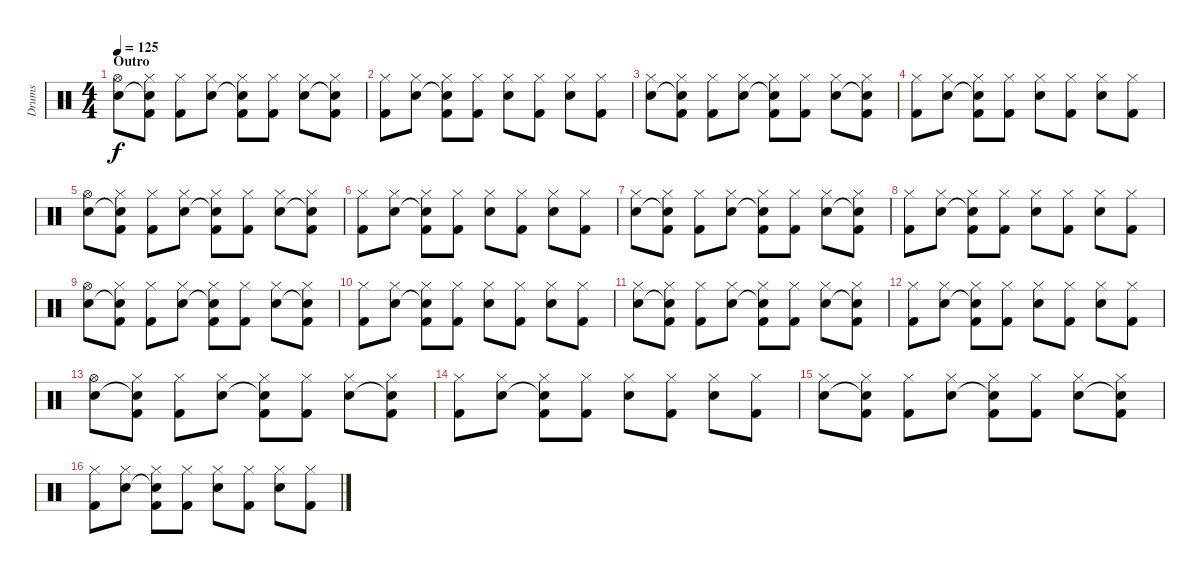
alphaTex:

\track ("Drums" "Drums") {instrument percussion}
\staff {score}
\articulation defaults
\ts (4 4)
\section ("" "Outro")
\tempo 125
\clef neutral
\ks c
("Hi-Hat (open)" "Snare (hit) 2").8{dy f} ("Hi-Hat (closed)" "Snare (hit) 2"{t} "Kick (hit) 2").8 ("Hi-Hat (closed)" "Kick (hit) 2").8 ("Hi-Hat (closed)" "Snare (hit) 2").8 ("Hi-Hat (closed)" "Snare (hit) 2"{t} "Kick (hit) 2").8 ("Hi-Hat (closed)" "Kick (hit) 2").8 ("Hi-Hat (closed)" "Snare (hit) 2").8 ("Hi-Hat (closed)" "Snare (hit) 2"{t} "Kick (hit) 2").8 |
("Hi-Hat (closed)" "Kick (hit) 2").8 ("Hi-Hat (closed)" "Snare (hit) 2").8 ("Hi-Hat (closed)" "Snare (hit) 2"{t} "Kick (hit) 2").8 ("Hi-Hat (closed)" "Kick (hit) 2").8 ("Hi-Hat (closed)" "Snare (hit) 2").8 ("Hi-Hat (closed)" "Kick (hit) 2").8 ("Hi-Hat (closed)" "Snare (hit) 2").8 ("Hi-Hat (closed)" "Kick (hit) 2").8 |
("Hi-Hat (closed)" "Snare (hit) 2").8 ("Hi-Hat (closed)" "Snare (hit) 2"{t} "Kick (hit) 2").8 ("Hi-Hat (closed)" "Kick (hit) 2").8 ("Hi-Hat (closed)" "Snare (hit) 2").8 ("Hi-Hat (closed)" "Snare (hit) 2"{t} "Kick (hit) 2").8 ("Hi-Hat (closed)" "Kick (hit) 2").8 ("Hi-Hat (closed)" "Snare (hit) 2").8 ("Hi-Hat (closed)" "Snare (hit) 2"{t} "Kick (hit) 2").8 |
("Hi-Hat (closed)" "Kick (hit) 2").8 ("Hi-Hat (closed)" "Snare (hit) 2").8 ("Hi-Hat (closed)" "Snare (hit) 2"{t} "Kick (hit) 2").8 ("Hi-Hat (closed)" "Kick (hit) 2").8 ("Hi-Hat (closed)" "Snare (hit) 2").8 ("Hi-Hat (closed)" "Kick (hit) 2").8 ("Hi-Hat (closed)" "Snare (hit) 2").8 ("Hi-Hat (closed)" "Kick (hit) 2").8 |
("Hi-Hat (open)" "Snare (hit) 2").8 ("Hi-Hat (closed)" "Snare (hit) 2"{t} "Kick (hit) 2").8 ("Hi-Hat (closed)" "Kick (hit) 2").8 ("Hi-Hat (closed)" "Snare (hit) 2").8 ("Hi-Hat (closed)" "Snare (hit) 2"{t} "Kick (hit) 2").8 ("Hi-Hat (closed)" "Kick (hit) 2").8 ("Hi-Hat (closed)" "Snare (hit) 2").8 ("Hi-Hat (closed)" "Snare (hit) 2"{t} "Kick (hit) 2").8 |
("Hi-Hat (closed)" "Kick (hit) 2").8 ("Hi-Hat (closed)" "Snare (hit) 2").8 ("Hi-Hat (closed)" "Snare (hit) 2"{t} "Kick (hit) 2").8 ("Hi-Hat (closed)" "Kick (hit) 2").8 ("Hi-Hat (closed)" "Snare (hit) 2").8 ("Hi-Hat (closed)" "Kick (hit) 2").8 ("Hi-Hat (closed)" "Snare (hit) 2").8 ("Hi-Hat (closed)" "Kick (hit) 2").8 |
("Hi-Hat (closed)" "Snare (hit) 2").8 ("Hi-Hat (closed)" "Snare (hit) 2"{t} "Kick (hit) 2").8 ("Hi-Hat (closed)" "Kick (hit) 2").8 ("Hi-Hat (closed)" "Snare (hit) 2").8 ("Hi-Hat (closed)" "Snare (hit) 2"{t} "Kick (hit) 2").8 ("Hi-Hat (closed)" "Kick (hit) 2").8 ("Hi-Hat (closed)" "Snare (hit) 2").8 ("Hi-Hat (closed)" "Snare (hit) 2"{t} "Kick (hit) 2").8 |
("Hi-Hat (closed)" "Kick (hit) 2").8 ("Hi-Hat (closed)" "Snare (hit) 2").8 ("Hi-Hat (closed)" "Snare (hit) 2"{t} "Kick (hit) 2").8 ("Hi-Hat (closed)" "Kick (hit) 2").8 ("Hi-Hat (closed)" "Snare (hit) 2").8 ("Hi-Hat (closed)" "Kick (hit) 2").8 ("Hi-Hat (closed)" "Snare (hit) 2").8 ("Hi-Hat (closed)" "Kick (hit) 2").8 |
("Hi-Hat (open)" "Snare (hit) 2").8 ("Hi-Hat (closed)" "Snare (hit) 2"{t} "Kick (hit) 2").8 ("Hi-Hat (closed)" "Kick (hit) 2").8 ("Hi-Hat (closed)" "Snare (hit) 2").8 ("Hi-Hat (closed)" "Snare (hit) 2"{t} "Kick (hit) 2").8 ("Hi-Hat (closed)" "Kick (hit) 2").8 ("Hi-Hat (closed)" "Snare (hit) 2").8 ("Hi-Hat (closed)" "Snare (hit) 2"{t} "Kick (hit) 2").8 |
("Hi-Hat (closed)" "Kick (hit) 2").8 ("Hi-Hat (closed)" "Snare (hit) 2").8 ("Hi-Hat (closed)" "Snare (hit) 2"{t} "Kick (hit) 2").8 ("Hi-Hat (closed)" "Kick (hit) 2").8 ("Hi-Hat (closed)" "Snare (hit) 2").8 ("Hi-Hat (closed)" "Kick (hit) 2").8 ("Hi-Hat (closed)" "Snare (hit) 2").8 ("Hi-Hat (closed)" "Kick (hit) 2").8 |
("Hi-Hat (closed)" "Snare (hit) 2").8 ("Hi-Hat (closed)" "Snare (hit) 2"{t} "Kick (hit) 2").8 ("Hi-Hat (closed)" "Kick (hit) 2").8 ("Hi-Hat (closed)" "Snare (hit) 2").8 ("Hi-Hat (closed)" "Snare (hit) 2"{t} "Kick (hit) 2").8 ("Hi-Hat (closed)" "Kick (hit) 2").8 ("Hi-Hat (closed)" "Snare (hit) 2").8 ("Hi-Hat (closed)" "Snare (hit) 2"{t} "Kick (hit) 2").8 |
("Hi-Hat (closed)" "Kick (hit) 2").8 ("Hi-Hat (closed)" "Snare (hit) 2").8 ("Hi-Hat (closed)" "Snare (hit) 2"{t} "Kick (hit) 2").8 ("Hi-Hat (closed)" "Kick (hit) 2").8 ("Hi-Hat (closed)" "Snare (hit) 2").8 ("Hi-Hat (closed)" "Kick (hit) 2").8 ("Hi-Hat (closed)" "Snare (hit) 2").8 ("Hi-Hat (closed)" "Kick (hit) 2").8 |
("Hi-Hat (open)" "Snare (hit) 2").8 ("Hi-Hat (closed)" "Snare (hit) 2"{t} "Kick (hit) 2").8 ("Hi-Hat (closed)" "Kick (hit) 2").8 ("Hi-Hat (closed)" "Snare (hit) 2").8 ("Hi-Hat (closed)" "Snare (hit) 2"{t} "Kick (hit) 2").8 ("Hi-Hat (closed)" "Kick (hit) 2").8 ("Hi-Hat (closed)" "Snare (hit) 2").8 ("Hi-Hat (closed)" "Snare (hit) 2"{t} "Kick (hit) 2").8 |
("Hi-Hat (closed)" "Kick (hit) 2").8 ("Hi-Hat (closed)" "Snare (hit) 2").8 ("Hi-Hat (closed)" "Snare (hit) 2"{t} "Kick (hit) 2").8 ("Hi-Hat (closed)" "Kick (hit) 2").8 ("Hi-Hat (closed)" "Snare (hit) 2").8 ("Hi-Hat (closed)" "Kick (hit) 2").8 ("Hi-Hat (closed)" "Snare (hit) 2").8 ("Hi-Hat (closed)" "Kick (hit) 2").8 |
("Hi-Hat (closed)" "Snare (hit) 2").8 ("Hi-Hat (closed)" "Snare (hit) 2"{t} "Kick (hit) 2").8 ("Hi-Hat (closed)" "Kick (hit) 2").8 ("Hi-Hat (closed)" "Snare (hit) 2").8 ("Hi-Hat (closed)" "Snare (hit) 2"{t} "Kick (hit) 2").8 ("Hi-Hat (closed)" "Kick (hit) 2").8 ("Hi-Hat (closed)" "Snare (hit) 2").8 ("Hi-Hat (closed)" "Snare (hit) 2"{t} "Kick (hit) 2").8 |
("Hi-Hat (closed)" "Kick (hit) 2").8 ("Hi-Hat (closed)" "Snare (hit) 2").8 ("Hi-Hat (closed)" "Snare (hit) 2"{t} "Kick (hit) 2").8 ("Hi-Hat (closed)" "Kick (hit) 2").8 ("Hi-Hat (closed)" "Snare (hit) 2").8 ("Hi-Hat (closed)" "Kick (hit) 2").8 ("Hi-Hat (closed)" "Snare (hit) 2").8 ("Hi-Hat (closed)" "Kick (hit) 2").8
